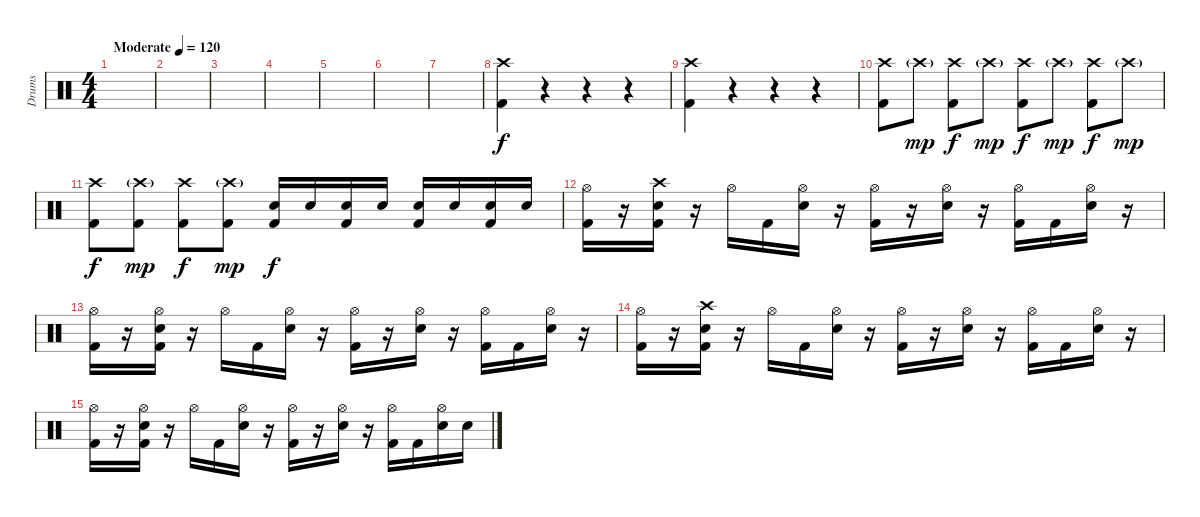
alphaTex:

\track ("Drums" "Drums") {instrument percussion}
\staff
\articulation defaults
\ts (4 4)
\tempo (120 "Moderate")
\clef neutral
\ks c
|
|
|
|
|
|
|
("Crash high (hit)" "Kick (hit) 2").4 r.4 r.4 r.4 |
("Crash high (hit)" "Kick (hit) 2").4 r.4 r.4 r.4 |
("Crash high (hit)" "Kick (hit) 2").8 "Crash high (hit)"{g}.8{dy mp} ("Crash high (hit)" "Kick (hit) 2").8{dy f} "Crash high (hit)"{g}.8{dy mp} ("Crash high (hit)" "Kick (hit) 2").8{dy f} "Crash high (hit)"{g}.8{dy mp} ("Crash high (hit)" "Kick (hit) 2").8{dy f} "Crash high (hit)"{g}.8{dy mp} |
("Crash high (hit)" "Kick (hit) 2").8{dy f} ("Crash high (hit)"{g} "Kick (hit) 2").8{dy mp} ("Crash high (hit)" "Kick (hit) 2").8{dy f} ("Crash high (hit)"{g} "Kick (hit) 2").8{dy mp} ("Electric Snare (hit)" "Kick (hit) 2").16{dy f} "Electric Snare (hit)".16 ("Electric Snare (hit)" "Kick (hit) 2").16 "Electric Snare (hit)".16 ("Electric Snare (hit)" "Kick (hit) 2").16 "Electric Snare (hit)".16 ("Electric Snare (hit)" "Kick (hit) 2").16 "Electric Snare (hit)".16 |
("Hi-Hat (open)" "Kick (hit) 2").16 r.16 ("Crash high (hit)" "Electric Snare (hit)" "Kick (hit) 2").16 r.16 "Hi-Hat (open)".16 "Kick (hit) 2".16 ("Hi-Hat (open)" "Electric Snare (hit)").16 r.16 ("Hi-Hat (open)" "Kick (hit) 2").16 r.16 ("Hi-Hat (open)" "Electric Snare (hit)").16 r.16 ("Hi-Hat (open)" "Kick (hit) 2").16 "Kick (hit) 2".16 ("Hi-Hat (open)" "Electric Snare (hit)").16 r.16 |
("Hi-Hat (open)" "Kick (hit) 2").16 r.16 ("Hi-Hat (open)" "Electric Snare (hit)" "Kick (hit) 2").16 r.16 "Hi-Hat (open)".16 "Kick (hit) 2".16 ("Hi-Hat (open)" "Electric Snare (hit)").16 r.16 ("Hi-Hat (open)" "Kick (hit) 2").16 r.16 ("Hi-Hat (open)" "Electric Snare (hit)").16 r.16 ("Hi-Hat (open)" "Kick (hit) 2").16 "Kick (hit) 2".16 ("Hi-Hat (open)" "Electric Snare (hit)").16 r.16 |
("Hi-Hat (open)" "Kick (hit) 2").16 r.16 ("Crash high (hit)" "Electric Snare (hit)" "Kick (hit) 2").16 r.16 "Hi-Hat (open)".16 "Kick (hit) 2".16 ("Hi-Hat (open)" "Electric Snare (hit)").16 r.16 ("Hi-Hat (open)" "Kick (hit) 2").16 r.16 ("Hi-Hat (open)" "Electric Snare (hit)").16 r.16 ("Hi-Hat (open)" "Kick (hit) 2").16 "Kick (hit) 2".16 ("Hi-Hat (open)" "Electric Snare (hit)").16 r.16 |
("Hi-Hat (open)" "Kick (hit) 2").16 r.16 ("Hi-Hat (open)" "Electric Snare (hit)" "Kick (hit) 2").16 r.16 "Hi-Hat (open)".16 "Kick (hit) 2".16 ("Hi-Hat (open)" "Electric Snare (hit)").16 r.16 ("Hi-Hat (open)" "Kick (hit) 2").16 r.16 ("Hi-Hat (open)" "Electric Snare (hit)").16 r.16 ("Hi-Hat (open)" "Kick (hit) 2").16 "Kick (hit) 2".16 ("Hi-Hat (open)" "Electric Snare (hit)").16 "Electric Snare (hit)".16
